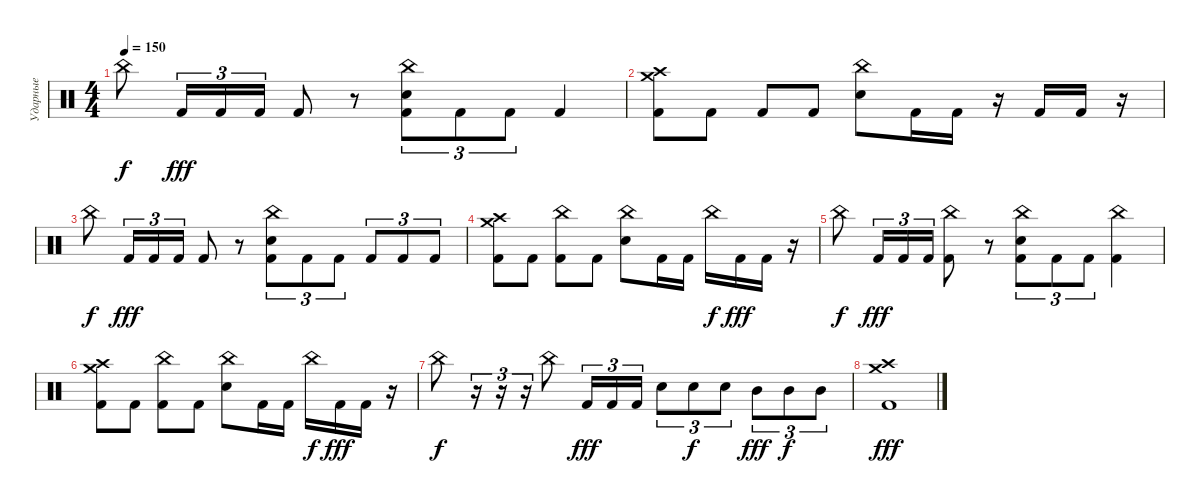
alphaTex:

\track ("Ударные" "Ударные") {instrument percussion}
\staff {score}
\articulation defaults
\ts (4 4)
\tempo 150
\clef neutral
\ks c "China (hit)".8{dy f} "Kick (hit) 2".16{tu (3 2) dy fff} "Kick (hit) 2".16{tu (3 2)} "Kick (hit) 2".16{tu (3 2)} "Kick (hit) 2".8
r.8 ("China (hit)" "Electric Snare (hit)" "Kick (hit) 2").8{tu (3 2)} "Kick (hit) 2".8{tu (3 2)} "Kick (hit) 2".8{tu (3 2)} "Kick (hit) 2".4 |
("Crash high (hit)" "Crash medium (hit)" "Kick (hit) 2").8 "Kick (hit) 2".8 "Kick (hit) 2".8 "Kick (hit) 2".8 ("China (hit)" "Electric Snare (hit)").8 "Kick (hit) 2".16 "Kick (hit) 2".16 r.16 "Kick (hit) 2".16 "Kick (hit) 2".16 r.16 |
"China (hit)".8{dy f} "Kick (hit) 2".16{tu (3 2) dy fff} "Kick (hit) 2".16{tu (3 2)} "Kick (hit) 2".16{tu (3 2)} "Kick (hit) 2".8 r.8 ("China (hit)" "Electric Snare (hit)" "Kick (hit) 2").8{tu (3 2)} "Kick (hit) 2".8{tu (3 2)} "Kick (hit) 2".8{tu (3 2)} "Kick (hit) 2".8{tu (3 2)} "Kick (hit) 2".8{tu (3 2)} "Kick (hit) 2".8{tu (3 2)} |
("Crash high (hit)" "Crash medium (hit)" "Kick (hit) 2").8 "Kick (hit) 2".8 ("China (hit)" "Kick (hit) 2").8 "Kick (hit) 2".8 ("China (hit)" "Electric Snare (hit)").8 "Kick (hit) 2".16 "Kick (hit) 2".16 "China (hit)".16{dy f} "Kick (hit) 2".16{dy fff} "Kick (hit) 2".16 r.16 |
"China (hit)".8{dy f} "Kick (hit) 2".16{tu (3 2) dy fff} "Kick (hit) 2".16{tu (3 2)} "Kick (hit) 2".16{tu (3 2)} ("China (hit)" "Kick (hit) 2").8 r.8 ("China (hit)" "Electric Snare (hit)" "Kick (hit) 2").8{tu (3 2)} "Kick (hit) 2".8{tu (3 2)} "Kick (hit) 2".8{tu (3 2)} ("China (hit)" "Kick (hit) 2").4 |
("Crash high (hit)" "Crash medium (hit)" "Kick (hit) 2").8 "Kick (hit) 2".8 ("China (hit)" "Kick (hit) 2").8 "Kick (hit) 2".8 ("China (hit)" "Electric Snare (hit)").8 "Kick (hit) 2".16 "Kick (hit) 2".16 "China (hit)".16{dy f} "Kick (hit) 2".16{dy fff} "Kick (hit) 2".16 r.16 |
"China (hit)".8{dy f} r.16{tu (3 2)} r.16{tu (3 2)} r.16{tu (3 2)} "China (hit)".8 "Kick (hit) 2".16{tu (3 2) dy fff} "Kick (hit) 2".16{tu (3 2)} "Kick (hit) 2".16{tu (3 2)} "Electric Snare (hit)".8{tu (3 2)} "Electric Snare (hit)".8{tu (3 2) dy f} "Electric Snare (hit)".8{tu (3 2)} "Mid Tom (hit)".8{tu (3 2) dy fff} "Mid Tom (hit)".8{tu (3 2) dy f} "Mid Tom (hit)".8{tu (3 2)} |
("Crash high (hit)" "Crash medium (hit)" "Kick (hit) 2").1{dy fff}
